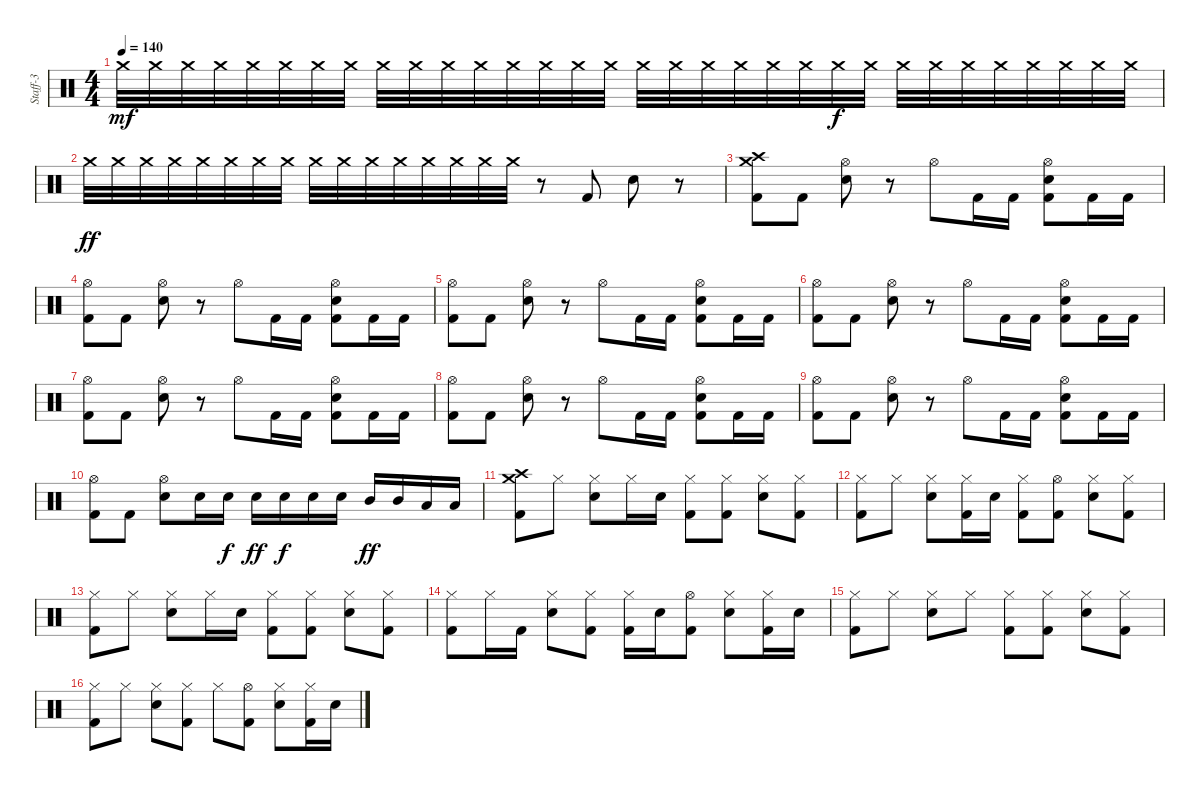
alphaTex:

\track ("Staff-3" "Staff-3") {instrument percussion}
\staff {score}
\articulation defaults
\ts (4 4)
\tempo 140
\clef neutral
\ks c "Crash medium (hit)".32{dy mf volume 10} "Crash medium (hit)".32{volume 10} "Crash medium (hit)".32{volume 11} "Crash medium (hit)".32{volume 12} "Crash medium (hit)".32{volume 12} "Crash medium (hit)".32{volume 12} "Crash medium (hit)".32{volume 13} "Crash medium (hit)".32{volume 14} "Crash medium (hit)".32{volume 14} "Crash medium (hit)".32{volume 14} "Crash medium (hit)".32{volume 15} "Crash medium (hit)".32{volume 16} "Crash medium (hit)".32{volume 16} "Crash medium (hit)".32 "Crash medium (hit)".32 "Crash medium (hit)".32 "Crash medium (hit)".32 "Crash medium (hit)".32 "Crash medium (hit)".32 "Crash medium (hit)".32 "Crash medium (hit)".32 "Crash medium (hit)".32 "Crash medium (hit)".32{dy f} "Crash medium (hit)".32 "Crash medium (hit)".32 "Crash medium (hit)".32 "Crash medium (hit)".32 "Crash medium (hit)".32 "Crash medium (hit)".32 "Crash medium (hit)".32 "Crash medium (hit)".32 "Crash medium (hit)".32
|
"Crash medium (hit)".32{dy ff} "Crash medium (hit)".32 "Crash medium (hit)".32 "Crash medium (hit)".32 "Crash medium (hit)".32 "Crash medium (hit)".32 "Crash medium (hit)".32 "Crash medium (hit)".32 "Crash medium (hit)".32 "Crash medium (hit)".32 "Crash medium (hit)".32 "Crash medium (hit)".32 "Crash medium (hit)".32 "Crash medium (hit)".32 "Crash medium (hit)".32 "Crash medium (hit)".32 r.8 "Kick (hit) 2".8 "Snare (hit) 2".8 r.8 |
("Kick (hit) 2" "Crash high (hit)" "Crash medium (hit)").8 "Kick (hit) 2".8 ("Snare (hit) 2" "Hi-Hat (open)").8 r.8 "Hi-Hat (open)".8 "Kick (hit) 2".16 "Kick (hit) 2".16 ("Kick (hit) 2" "Snare (hit) 2" "Hi-Hat (open)").8 "Kick (hit) 2".16 "Kick (hit) 2".16 |
("Kick (hit) 2" "Hi-Hat (open)").8 "Kick (hit) 2".8 ("Snare (hit) 2" "Hi-Hat (open)").8 r.8 "Hi-Hat (open)".8 "Kick (hit) 2".16 "Kick (hit) 2".16 ("Kick (hit) 2" "Snare (hit) 2" "Hi-Hat (open)").8 "Kick (hit) 2".16 "Kick (hit) 2".16 |
("Kick (hit) 2" "Hi-Hat (open)").8 "Kick (hit) 2".8 ("Snare (hit) 2" "Hi-Hat (open)").8 r.8 "Hi-Hat (open)".8 "Kick (hit) 2".16 "Kick (hit) 2".16 ("Kick (hit) 2" "Snare (hit) 2" "Hi-Hat (open)").8 "Kick (hit) 2".16 "Kick (hit) 2".16 |
("Kick (hit) 2" "Hi-Hat (open)").8 "Kick (hit) 2".8 ("Snare (hit) 2" "Hi-Hat (open)").8 r.8 "Hi-Hat (open)".8 "Kick (hit) 2".16 "Kick (hit) 2".16 ("Kick (hit) 2" "Snare (hit) 2" "Hi-Hat (open)").8 "Kick (hit) 2".16 "Kick (hit) 2".16 |
("Kick (hit) 2" "Hi-Hat (open)").8 "Kick (hit) 2".8 ("Snare (hit) 2" "Hi-Hat (open)").8 r.8 "Hi-Hat (open)".8 "Kick (hit) 2".16 "Kick (hit) 2".16 ("Kick (hit) 2" "Snare (hit) 2" "Hi-Hat (open)").8 "Kick (hit) 2".16 "Kick (hit) 2".16 |
("Kick (hit) 2" "Hi-Hat (open)").8 "Kick (hit) 2".8 ("Snare (hit) 2" "Hi-Hat (open)").8 r.8 "Hi-Hat (open)".8 "Kick (hit) 2".16 "Kick (hit) 2".16 ("Kick (hit) 2" "Snare (hit) 2" "Hi-Hat (open)").8 "Kick (hit) 2".16 "Kick (hit) 2".16 |
("Kick (hit) 2" "Hi-Hat (open)").8 "Kick (hit) 2".8 ("Snare (hit) 2" "Hi-Hat (open)").8 r.8 "Hi-Hat (open)".8 "Kick (hit) 2".16 "Kick (hit) 2".16 ("Kick (hit) 2" "Snare (hit) 2" "Hi-Hat (open)").8 "Kick (hit) 2".16 "Kick (hit) 2".16 |
("Kick (hit) 2" "Hi-Hat (open)").8 "Kick (hit) 2".8 ("Snare (hit) 2" "Hi-Hat (open)").8 "Snare (hit) 2".16 "Snare (hit) 2".16{dy f} "Snare (hit) 2".16{dy ff} "Snare (hit) 2".16{dy f} "Snare (hit) 2".16 "Snare (hit) 2".16 "Mid Tom (hit)".16{dy ff} "Mid Tom (hit)".16 "Low Tom (hit)".16 "Low Tom (hit)".16 |
("Kick (hit) 2" "Crash high (hit)" "Crash medium (hit)").8 "Hi-Hat (closed)".8 ("Snare (hit) 2" "Hi-Hat (closed)").8 "Hi-Hat (closed)".16 "Snare (hit) 2".16 ("Kick (hit) 2" "Hi-Hat (closed)").8 ("Kick (hit) 2" "Hi-Hat (closed)").8 ("Snare (hit) 2" "Hi-Hat (closed)").8 ("Kick (hit) 2" "Hi-Hat (closed)").8 |
("Kick (hit) 2" "Hi-Hat (closed)").8 "Hi-Hat (closed)".8 ("Snare (hit) 2" "Hi-Hat (closed)").8 ("Kick (hit) 2" "Hi-Hat (closed)").16 "Snare (hit) 2".16 ("Kick (hit) 2" "Hi-Hat (closed)").8 ("Kick (hit) 2" "Hi-Hat (open)").8 ("Snare (hit) 2" "Hi-Hat (closed)").8 ("Kick (hit) 2" "Hi-Hat (closed)").8 |
("Kick (hit) 2" "Hi-Hat (closed)").8 "Hi-Hat (closed)".8 ("Snare (hit) 2" "Hi-Hat (closed)").8 "Hi-Hat (closed)".16 "Snare (hit) 2".16 ("Kick (hit) 2" "Hi-Hat (closed)").8 ("Kick (hit) 2" "Hi-Hat (closed)").8 ("Snare (hit) 2" "Hi-Hat (closed)").8 ("Kick (hit) 2" "Hi-Hat (closed)").8 |
("Kick (hit) 2" "Hi-Hat (closed)").8 "Hi-Hat (closed)".16 "Kick (hit) 2".16 ("Snare (hit) 2" "Hi-Hat (closed)").8 ("Kick (hit) 2" "Hi-Hat (closed)").8 ("Kick (hit) 2" "Hi-Hat (closed)").16 "Snare (hit) 2".16 ("Kick (hit) 2" "Hi-Hat (open)").8 ("Snare (hit) 2" "Hi-Hat (closed)").8 ("Kick (hit) 2" "Hi-Hat (closed)").16 "Snare (hit) 2".16 |
("Kick (hit) 2" "Hi-Hat (closed)").8 "Hi-Hat (closed)".8 ("Snare (hit) 2" "Hi-Hat (closed)").8 "Hi-Hat (closed)".8 ("Kick (hit) 2" "Hi-Hat (closed)").8 ("Kick (hit) 2" "Hi-Hat (closed)").8 ("Snare (hit) 2" "Hi-Hat (closed)").8 ("Kick (hit) 2" "Hi-Hat (closed)").8 |
("Kick (hit) 2" "Hi-Hat (closed)").8 "Hi-Hat (closed)".8 ("Snare (hit) 2" "Hi-Hat (closed)").8 ("Kick (hit) 2" "Hi-Hat (closed)").8 "Hi-Hat (closed)".8 ("Kick (hit) 2" "Hi-Hat (open)").8 ("Snare (hit) 2" "Hi-Hat (closed)").8 ("Kick (hit) 2" "Hi-Hat (closed)").16 "Snare (hit) 2".16
